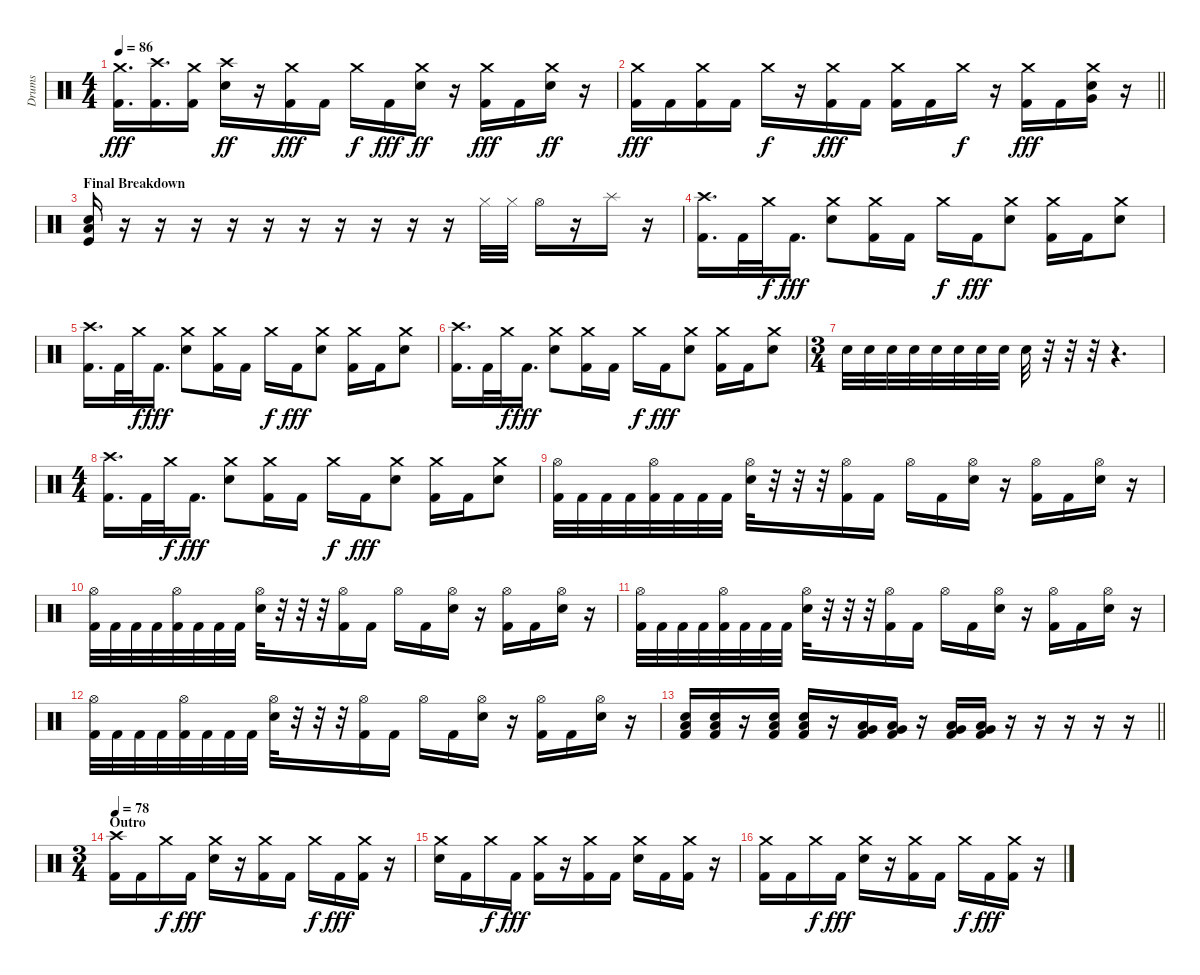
\track ("Drums" "Drums") {instrument percussion}
\staff {score}
\articulation defaults
\ts (4 4)
\tempo 86
\clef neutral
\ks c
("Crash medium (hit)" "Kick (hit) 2").16{d dy fff} ("Crash high (hit)" "Kick (hit) 2").16{d} ("Crash medium (hit)" "Kick (hit) 2").16 ("Crash high (hit)" "Electric Snare (hit)").16{dy ff} r.16 ("Crash medium (hit)" "Kick (hit) 2").16{dy fff} "Kick (hit) 2".16 "Crash medium (hit)".16{dy f} "Kick (hit) 2".16{dy fff} ("Crash medium (hit)" "Electric Snare (hit)").16{dy ff} r.16 ("Crash medium (hit)" "Kick (hit) 2").16{dy fff} "Kick (hit) 2".16 ("Crash medium (hit)" "Electric Snare (hit)").16{dy ff} r.16 |
\barLineRight lightlight
("Crash medium (hit)" "Kick (hit) 2").16{dy fff} "Kick (hit) 2".16 ("Crash medium (hit)" "Kick (hit) 2").16 "Kick (hit) 2".16 "Crash medium (hit)".16{dy f} r.16 ("Crash medium (hit)" "Kick (hit) 2").16{dy fff} "Kick (hit) 2".16 ("Crash medium (hit)" "Kick (hit) 2").16 "Kick (hit) 2".16 "Crash medium (hit)".16{dy f} r.16 ("Crash medium (hit)" "Kick (hit) 2").16{dy fff} "Kick (hit) 2".16 ("Crash medium (hit)" "Electric Snare (hit)" "Very Low Tom (hit)").16 r.16 |
\section ("" "Final Breakdown")
("Electric Snare (hit)" "Low Floor Tom (hit)" "Kick (hit)").16{volume 16 balance 9} r.16 r.16 r.16 r.16 r.16 r.16 r.16 r.16 r.16 r.16 "Hi-Hat (closed)".32 "Hi-Hat (closed)".32 "Hi-Hat (open)".16 r.16 "Splash (hit)".16 r.16 |
("Crash high (hit)" "Kick (hit) 2").16{d} "Kick (hit) 2".32 "Crash medium (hit)".32{dy f} "Kick (hit) 2".16{d dy fff} ("Crash medium (hit)" "Electric Snare (hit)").8 ("Crash medium (hit)" "Kick (hit) 2").16 "Kick (hit) 2".16 "Crash medium (hit)".16{dy f} "Kick (hit) 2".16{dy fff} ("Crash medium (hit)" "Electric Snare (hit)").8 ("Crash medium (hit)" "Kick (hit) 2").16 "Kick (hit) 2".16 ("Crash medium (hit)" "Electric Snare (hit)").8 |
("Crash high (hit)" "Kick (hit) 2").16{d} "Kick (hit) 2".32 "Crash medium (hit)".32{dy f} "Kick (hit) 2".16{d dy fff} ("Crash medium (hit)" "Electric Snare (hit)").8 ("Crash medium (hit)" "Kick (hit) 2").16 "Kick (hit) 2".16 "Crash medium (hit)".16{dy f} "Kick (hit) 2".16{dy fff} ("Crash medium (hit)" "Electric Snare (hit)").8 ("Crash medium (hit)" "Kick (hit) 2").16 "Kick (hit) 2".16 ("Crash medium (hit)" "Electric Snare (hit)").8 |
("Crash high (hit)" "Kick (hit) 2").16{d} "Kick (hit) 2".32 "Crash medium (hit)".32{dy f} "Kick (hit) 2".16{d dy fff} ("Crash medium (hit)" "Electric Snare (hit)").8 ("Crash medium (hit)" "Kick (hit) 2").16 "Kick (hit) 2".16 "Crash medium (hit)".16{dy f} "Kick (hit) 2".16{dy fff} ("Crash medium (hit)" "Electric Snare (hit)").8 ("Crash medium (hit)" "Kick (hit) 2").16 "Kick (hit) 2".16 ("Crash medium (hit)" "Electric Snare (hit)").8 |
\ts (3 4)
"Electric Snare (hit)".32 "Electric Snare (hit)".32 "Electric Snare (hit)".32 "Electric Snare (hit)".32 "Electric Snare (hit)".32 "Electric Snare (hit)".32 "Electric Snare (hit)".32 "Electric Snare (hit)".32 "Electric Snare (hit)".32 r.32 r.32 r.32 r.4{d} |
\ts (4 4)
("Crash high (hit)" "Kick (hit) 2").16{d} "Kick (hit) 2".32 "Crash medium (hit)".32{dy f} "Kick (hit) 2".16{d dy fff} ("Crash medium (hit)" "Electric Snare (hit)").8 ("Crash medium (hit)" "Kick (hit) 2").16 "Kick (hit) 2".16 "Crash medium (hit)".16{dy f} "Kick (hit) 2".16{dy fff} ("Crash medium (hit)" "Electric Snare (hit)").8 ("Crash medium (hit)" "Kick (hit) 2").16 "Kick (hit) 2".16 ("Crash medium (hit)" "Electric Snare (hit)").8 |
("Hi-Hat (open)" "Kick (hit) 2").32 "Kick (hit) 2".32 "Kick (hit) 2".32 "Kick (hit) 2".32 ("Hi-Hat (open)" "Kick (hit) 2").32 "Kick (hit) 2".32 "Kick (hit) 2".32 "Kick (hit) 2".32 ("Hi-Hat (open)" "Electric Snare (hit)").32 r.32 r.32 r.32 ("Hi-Hat (open)" "Kick (hit) 2").16 "Kick (hit) 2".16 "Hi-Hat (open)".16 "Kick (hit) 2".16 ("Hi-Hat (open)" "Electric Snare (hit)").16 r.16 ("Hi-Hat (open)" "Kick (hit) 2").16 "Kick (hit) 2".16 ("Hi-Hat (open)" "Electric Snare (hit)").16 r.16 |
("Hi-Hat (open)" "Kick (hit) 2").32 "Kick (hit) 2".32 "Kick (hit) 2".32 "Kick (hit) 2".32 ("Hi-Hat (open)" "Kick (hit) 2").32 "Kick (hit) 2".32 "Kick (hit) 2".32 "Kick (hit) 2".32 ("Hi-Hat (open)" "Electric Snare (hit)").32 r.32 r.32 r.32 ("Hi-Hat (open)" "Kick (hit) 2").16 "Kick (hit) 2".16 "Hi-Hat (open)".16 "Kick (hit) 2".16 ("Hi-Hat (open)" "Electric Snare (hit)").16 r.16 ("Hi-Hat (open)" "Kick (hit) 2").16 "Kick (hit) 2".16 ("Hi-Hat (open)" "Electric Snare (hit)").16 r.16 |
("Hi-Hat (open)" "Kick (hit) 2").32 "Kick (hit) 2".32 "Kick (hit) 2".32 "Kick (hit) 2".32 ("Hi-Hat (open)" "Kick (hit) 2").32 "Kick (hit) 2".32 "Kick (hit) 2".32 "Kick (hit) 2".32 ("Hi-Hat (open)" "Electric Snare (hit)").32 r.32 r.32 r.32 ("Hi-Hat (open)" "Kick (hit) 2").16 "Kick (hit) 2".16 "Hi-Hat (open)".16 "Kick (hit) 2".16 ("Hi-Hat (open)" "Electric Snare (hit)").16 r.16 ("Hi-Hat (open)" "Kick (hit) 2").16 "Kick (hit) 2".16 ("Hi-Hat (open)" "Electric Snare (hit)").16 r.16 |
("Hi-Hat (open)" "Kick (hit) 2").32 "Kick (hit) 2".32 "Kick (hit) 2".32 "Kick (hit) 2".32 ("Hi-Hat (open)" "Kick (hit) 2").32 "Kick (hit) 2".32 "Kick (hit) 2".32 "Kick (hit) 2".32 ("Hi-Hat (open)" "Electric Snare (hit)").32 r.32 r.32 r.32 ("Hi-Hat (open)" "Kick (hit) 2").16 "Kick (hit) 2".16 "Hi-Hat (open)".16 "Kick (hit) 2".16 ("Hi-Hat (open)" "Electric Snare (hit)").16 r.16 ("Hi-Hat (open)" "Kick (hit) 2").16 "Kick (hit) 2".16 ("Hi-Hat (open)" "Electric Snare (hit)").16 r.16 |
\barLineRight lightlight
("Electric Snare (hit)" "Low Floor Tom (hit)" "Kick (hit) 2").16 ("Electric Snare (hit)" "Low Floor Tom (hit)" "Kick (hit) 2").16 r.16 ("Electric Snare (hit)" "Low Floor Tom (hit)" "Kick (hit) 2").16 ("Electric Snare (hit)" "Low Floor Tom (hit)" "Kick (hit) 2").16 r.16 ("Very Low Tom (hit)" "Low Floor Tom (hit)" "Kick (hit) 2").16 ("Very Low Tom (hit)" "Low Floor Tom (hit)" "Kick (hit) 2").16 r.16 ("Very Low Tom (hit)" "Low Floor Tom (hit)" "Kick (hit) 2").16 ("Very Low Tom (hit)" "Low Floor Tom (hit)" "Kick (hit) 2").16 r.16 r.16 r.16 r.16 r.16 |
\ts (3 4)
\section ("" "Outro")
\tempo 78
("Crash high (hit)" "Kick (hit) 2").16 "Kick (hit) 2".16 "Crash medium (hit)".16{dy f} "Kick (hit) 2".16{dy fff} ("Crash medium (hit)" "Electric Snare (hit)").16 r.16 ("Crash medium (hit)" "Kick (hit) 2").16 "Kick (hit) 2".16 "Crash medium (hit)".16{dy f} "Kick (hit) 2".16{dy fff} ("Crash medium (hit)" "Kick (hit) 2").16 r.16 |
("Crash medium (hit)" "Electric Snare (hit)").16 "Kick (hit) 2".16 "Crash medium (hit)".16{dy f} "Kick (hit) 2".16{dy fff} ("Crash medium (hit)" "Kick (hit) 2").16 r.16 ("Crash medium (hit)" "Kick (hit) 2").16 "Kick (hit) 2".16 ("Crash medium (hit)" "Electric Snare (hit)").16 "Kick (hit) 2".16 ("Crash medium (hit)" "Kick (hit) 2").16 r.16 |
("Crash medium (hit)" "Kick (hit) 2").16 "Kick (hit) 2".16 "Crash medium (hit)".16{dy f} "Kick (hit) 2".16{dy fff} ("Crash medium (hit)" "Electric Snare (hit)").16 r.16 ("Crash medium (hit)" "Kick (hit) 2").16 "Kick (hit) 2".16 "Crash medium (hit)".16{dy f} "Kick (hit) 2".16{dy fff} ("Crash medium (hit)" "Kick (hit) 2").16 r.16
